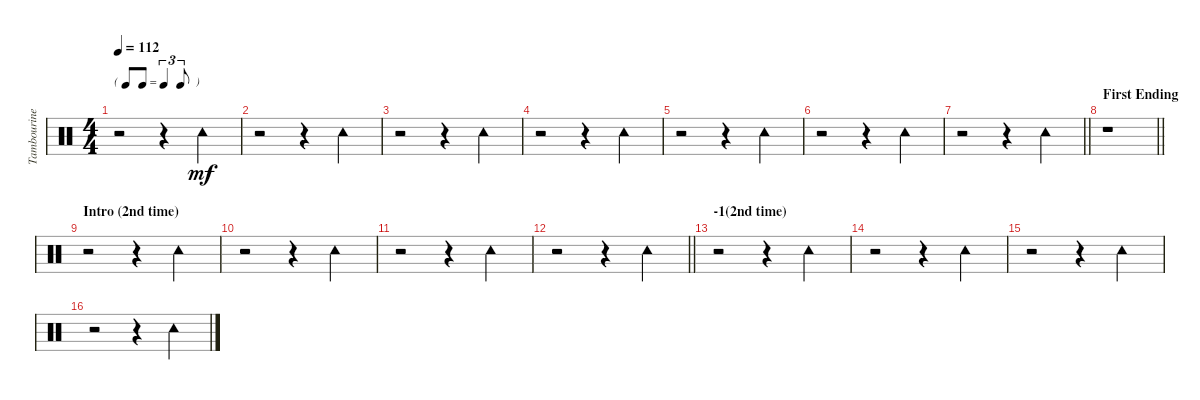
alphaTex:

\track ("Tambourine" "Tambourine") {instrument percussion}
\staff {score}
\articulation defaults
\ts (4 4)
\tf triplet8th
\tempo 112
\clef neutral
\ks c
r.2{dy mf} r.4 "Tambourine (hit)".4 |
r.2 r.4 "Tambourine (hit)".4 |
r.2 r.4 "Tambourine (hit)".4 |
r.2 r.4 "Tambourine (hit)".4 |
r.2 r.4 "Tambourine (hit)".4 |
r.2 r.4 "Tambourine (hit)".4 |
\barLineRight lightlight
r.2 r.4 "Tambourine (hit)".4 |
\section ("" "First Ending")
\barLineRight lightlight
r.1 |
\section ("" "Intro (2nd time)")
r.2 r.4 "Tambourine (hit)".4 |
r.2 r.4 "Tambourine (hit)".4 |
r.2 r.4 "Tambourine (hit)".4 |
\barLineRight lightlight
r.2 r.4 "Tambourine (hit)".4 |
\section ("" "-1(2nd time)")
r.2 r.4 "Tambourine (hit)".4 |
r.2 r.4 "Tambourine (hit)".4 |
r.2 r.4 "Tambourine (hit)".4 |
r.2 r.4 "Tambourine (hit)".4
